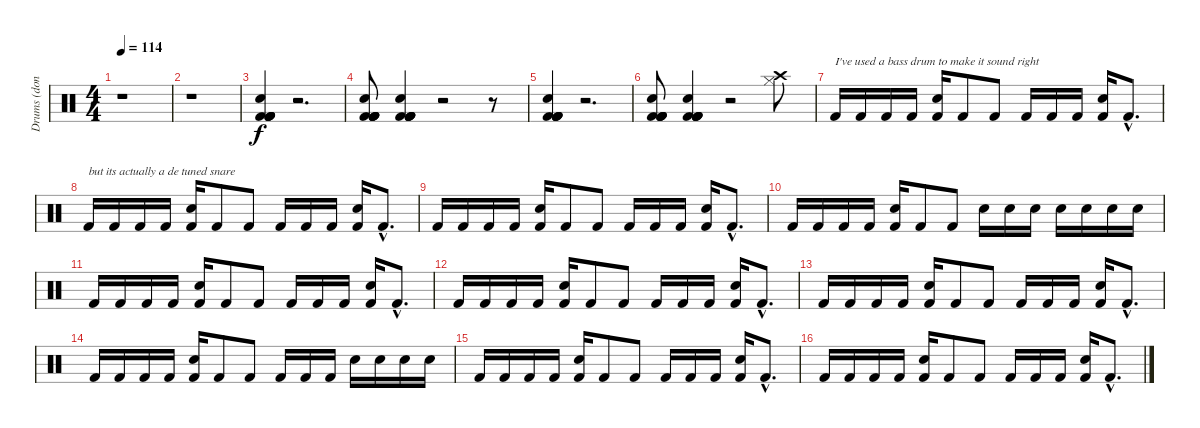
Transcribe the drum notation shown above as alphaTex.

\track ("Drums (done badly)" "Drums (don") {instrument percussion}
\staff {score}
\articulation defaults
\ts (4 4)
\tempo 114
\clef neutral
\ks c
r.1{dy f} |
r.1 |
("Kick (hit) 2" "Kick (hit) 2" "Kick (hit) 2" "Snare (hit) 2" "Kick (hit) 2" "Kick (hit) 2").4 r.2{d} |
("Kick (hit) 2" "Kick (hit) 2" "Kick (hit) 2" "Snare (hit) 2" "Kick (hit) 2" "Kick (hit) 2").8 ("Kick (hit) 2" "Kick (hit) 2" "Kick (hit) 2" "Snare (hit) 2" "Kick (hit) 2" "Kick (hit) 2").4 r.2 r.8 |
("Kick (hit) 2" "Kick (hit) 2" "Kick (hit) 2" "Snare (hit) 2" "Kick (hit) 2" "Kick (hit) 2").4 r.2{d} |
("Kick (hit) 2" "Kick (hit) 2" "Kick (hit) 2" "Snare (hit) 2" "Kick (hit) 2" "Kick (hit) 2").8 ("Kick (hit) 2" "Kick (hit) 2" "Kick (hit) 2" "Snare (hit) 2" "Kick (hit) 2" "Kick (hit) 2").4 r.2 ("Crash high (hit)" "Hi-Hat (closed)").8 |
"Kick (hit) 2".16{txt "I've used a bass drum to make it sound right" volume 8} "Kick (hit) 2".16 "Kick (hit) 2".16 "Kick (hit) 2".16 ("Snare (hit) 2" "Kick (hit) 2").16 "Kick (hit) 2".8 "Kick (hit) 2".8 "Kick (hit) 2".16 "Kick (hit) 2".16 "Kick (hit) 2".16 ("Snare (hit) 2" "Kick (hit) 2").16 "Kick (hit) 2"{hac}.8{d} |
"Kick (hit) 2".16{txt "but its actually a de tuned snare"} "Kick (hit) 2".16 "Kick (hit) 2".16 "Kick (hit) 2".16 ("Snare (hit) 2" "Kick (hit) 2").16 "Kick (hit) 2".8 "Kick (hit) 2".8 "Kick (hit) 2".16 "Kick (hit) 2".16 "Kick (hit) 2".16 ("Snare (hit) 2" "Kick (hit) 2").16 "Kick (hit) 2"{hac}.8{d} |
"Kick (hit) 2".16 "Kick (hit) 2".16 "Kick (hit) 2".16 "Kick (hit) 2".16 ("Snare (hit) 2" "Kick (hit) 2").16 "Kick (hit) 2".8 "Kick (hit) 2".8 "Kick (hit) 2".16 "Kick (hit) 2".16 "Kick (hit) 2".16 ("Snare (hit) 2" "Kick (hit) 2").16 "Kick (hit) 2"{hac}.8{d} |
"Kick (hit) 2".16 "Kick (hit) 2".16 "Kick (hit) 2".16 "Kick (hit) 2".16 ("Snare (hit) 2" "Kick (hit) 2").16 "Kick (hit) 2".8 "Kick (hit) 2".8 "Snare (hit) 2".16{volume 13} "Snare (hit) 2".16 "Snare (hit) 2".16 "Snare (hit) 2".16 "Snare (hit) 2".16 "Snare (hit) 2".16 "Snare (hit) 2".16 |
"Kick (hit) 2".16 "Kick (hit) 2".16 "Kick (hit) 2".16 "Kick (hit) 2".16 ("Snare (hit) 2" "Kick (hit) 2").16 "Kick (hit) 2".8 "Kick (hit) 2".8 "Kick (hit) 2".16 "Kick (hit) 2".16 "Kick (hit) 2".16 ("Snare (hit) 2" "Kick (hit) 2").16 "Kick (hit) 2"{hac}.8{d} |
"Kick (hit) 2".16 "Kick (hit) 2".16 "Kick (hit) 2".16 "Kick (hit) 2".16 ("Snare (hit) 2" "Kick (hit) 2").16 "Kick (hit) 2".8 "Kick (hit) 2".8 "Kick (hit) 2".16 "Kick (hit) 2".16 "Kick (hit) 2".16 ("Snare (hit) 2" "Kick (hit) 2").16 "Kick (hit) 2"{hac}.8{d} |
"Kick (hit) 2".16 "Kick (hit) 2".16 "Kick (hit) 2".16 "Kick (hit) 2".16 ("Snare (hit) 2" "Kick (hit) 2").16 "Kick (hit) 2".8 "Kick (hit) 2".8 "Kick (hit) 2".16 "Kick (hit) 2".16 "Kick (hit) 2".16 ("Snare (hit) 2" "Kick (hit) 2").16 "Kick (hit) 2"{hac}.8{d} |
"Kick (hit) 2".16 "Kick (hit) 2".16 "Kick (hit) 2".16 "Kick (hit) 2".16 ("Snare (hit) 2" "Kick (hit) 2").16 "Kick (hit) 2".8 "Kick (hit) 2".8 "Kick (hit) 2".16 "Kick (hit) 2".16 "Kick (hit) 2".16 "Snare (hit) 2".16 "Snare (hit) 2".16 "Snare (hit) 2".16 "Snare (hit) 2".16 |
"Kick (hit) 2".16 "Kick (hit) 2".16 "Kick (hit) 2".16 "Kick (hit) 2".16 ("Snare (hit) 2" "Kick (hit) 2").16 "Kick (hit) 2".8 "Kick (hit) 2".8 "Kick (hit) 2".16 "Kick (hit) 2".16 "Kick (hit) 2".16 ("Snare (hit) 2" "Kick (hit) 2").16 "Kick (hit) 2"{hac}.8{d} |
"Kick (hit) 2".16 "Kick (hit) 2".16 "Kick (hit) 2".16 "Kick (hit) 2".16 ("Snare (hit) 2" "Kick (hit) 2").16 "Kick (hit) 2".8 "Kick (hit) 2".8 "Kick (hit) 2".16 "Kick (hit) 2".16 "Kick (hit) 2".16 ("Snare (hit) 2" "Kick (hit) 2").16 "Kick (hit) 2"{hac}.8{d}
